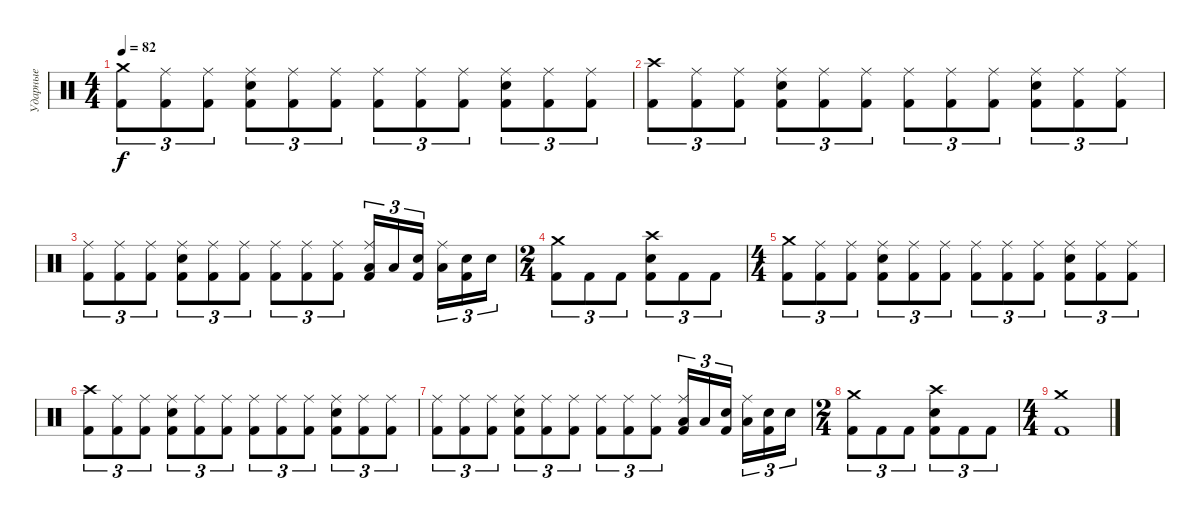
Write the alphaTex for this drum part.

\track ("Ударные" "Ударные") {instrument percussion}
\staff {score}
\articulation defaults
\ts (4 4)
\tempo 82
\clef neutral
\ks c
("Crash medium (hit)" "Kick (hit) 2").8{tu (3 2) dy f} ("Ride (middle)" "Kick (hit) 2").8{tu (3 2)} ("Ride (middle)" "Kick (hit) 2").8{tu (3 2)} ("Ride (middle)" "Electric Snare (hit)" "Kick (hit) 2").8{tu (3 2)} ("Ride (middle)" "Kick (hit) 2").8{tu (3 2)} ("Ride (middle)" "Kick (hit) 2").8{tu (3 2)} ("Ride (middle)" "Kick (hit) 2").8{tu (3 2)} ("Ride (middle)" "Kick (hit) 2").8{tu (3 2)} ("Ride (middle)" "Kick (hit) 2").8{tu (3 2)} ("Ride (middle)" "Electric Snare (hit)" "Kick (hit) 2").8{tu (3 2)} ("Ride (middle)" "Kick (hit) 2").8{tu (3 2)} ("Ride (middle)" "Kick (hit) 2").8{tu (3 2)} |
("Crash high (hit)" "Kick (hit) 2").8{tu (3 2)} ("Ride (middle)" "Kick (hit) 2").8{tu (3 2)} ("Ride (middle)" "Kick (hit) 2").8{tu (3 2)} ("Ride (middle)" "Electric Snare (hit)" "Kick (hit) 2").8{tu (3 2)} ("Ride (middle)" "Kick (hit) 2").8{tu (3 2)} ("Ride (middle)" "Kick (hit) 2").8{tu (3 2)} ("Ride (middle)" "Kick (hit) 2").8{tu (3 2)} ("Ride (middle)" "Kick (hit) 2").8{tu (3 2)} ("Ride (middle)" "Kick (hit) 2").8{tu (3 2)} ("Ride (middle)" "Electric Snare (hit)" "Kick (hit) 2").8{tu (3 2)} ("Ride (middle)" "Kick (hit) 2").8{tu (3 2)} ("Ride (middle)" "Kick (hit) 2").8{tu (3 2)} |
("Ride (middle)" "Kick (hit) 2").8{tu (3 2)} ("Ride (middle)" "Kick (hit) 2").8{tu (3 2)} ("Ride (middle)" "Kick (hit) 2").8{tu (3 2)} ("Ride (middle)" "Electric Snare (hit)" "Kick (hit) 2").8{tu (3 2)} ("Ride (middle)" "Kick (hit) 2").8{tu (3 2)} ("Ride (middle)" "Kick (hit) 2").8{tu (3 2)} ("Ride (middle)" "Kick (hit) 2").8{tu (3 2)} ("Ride (middle)" "Kick (hit) 2").8{tu (3 2)} ("Ride (middle)" "Kick (hit) 2").8{tu (3 2)} ("Ride (middle)" "Low Tom (hit)" "Kick (hit) 2").16{tu (3 2)} "Low Tom (hit)".16{tu (3 2)} ("Electric Snare (hit)" "Kick (hit) 2").16{tu (3 2)} ("Ride (middle)" "Low Tom (hit)").16{tu (3 2)} ("Electric Snare (hit)" "Kick (hit) 2").16{tu (3 2)} "Electric Snare (hit)".16{tu (3 2)} |
\ts (2 4)
("Crash medium (hit)" "Kick (hit) 2").8{tu (3 2)} "Kick (hit) 2".8{tu (3 2)} "Kick (hit) 2".8{tu (3 2)} ("Crash high (hit)" "Electric Snare (hit)" "Kick (hit) 2").8{tu (3 2)} "Kick (hit) 2".8{tu (3 2)} "Kick (hit) 2".8{tu (3 2)} |
\ts (4 4)
("Crash medium (hit)" "Kick (hit) 2").8{tu (3 2)} ("Ride (middle)" "Kick (hit) 2").8{tu (3 2)} ("Ride (middle)" "Kick (hit) 2").8{tu (3 2)} ("Ride (middle)" "Electric Snare (hit)" "Kick (hit) 2").8{tu (3 2)} ("Ride (middle)" "Kick (hit) 2").8{tu (3 2)} ("Ride (middle)" "Kick (hit) 2").8{tu (3 2)} ("Ride (middle)" "Kick (hit) 2").8{tu (3 2)} ("Ride (middle)" "Kick (hit) 2").8{tu (3 2)} ("Ride (middle)" "Kick (hit) 2").8{tu (3 2)} ("Ride (middle)" "Electric Snare (hit)" "Kick (hit) 2").8{tu (3 2)} ("Ride (middle)" "Kick (hit) 2").8{tu (3 2)} ("Ride (middle)" "Kick (hit) 2").8{tu (3 2)} |
("Crash high (hit)" "Kick (hit) 2").8{tu (3 2)} ("Ride (middle)" "Kick (hit) 2").8{tu (3 2)} ("Ride (middle)" "Kick (hit) 2").8{tu (3 2)} ("Ride (middle)" "Electric Snare (hit)" "Kick (hit) 2").8{tu (3 2)} ("Ride (middle)" "Kick (hit) 2").8{tu (3 2)} ("Ride (middle)" "Kick (hit) 2").8{tu (3 2)} ("Ride (middle)" "Kick (hit) 2").8{tu (3 2)} ("Ride (middle)" "Kick (hit) 2").8{tu (3 2)} ("Ride (middle)" "Kick (hit) 2").8{tu (3 2)} ("Ride (middle)" "Electric Snare (hit)" "Kick (hit) 2").8{tu (3 2)} ("Ride (middle)" "Kick (hit) 2").8{tu (3 2)} ("Ride (middle)" "Kick (hit) 2").8{tu (3 2)} |
("Ride (middle)" "Kick (hit) 2").8{tu (3 2)} ("Ride (middle)" "Kick (hit) 2").8{tu (3 2)} ("Ride (middle)" "Kick (hit) 2").8{tu (3 2)} ("Ride (middle)" "Electric Snare (hit)" "Kick (hit) 2").8{tu (3 2)} ("Ride (middle)" "Kick (hit) 2").8{tu (3 2)} ("Ride (middle)" "Kick (hit) 2").8{tu (3 2)} ("Ride (middle)" "Kick (hit) 2").8{tu (3 2)} ("Ride (middle)" "Kick (hit) 2").8{tu (3 2)} ("Ride (middle)" "Kick (hit) 2").8{tu (3 2)} ("Ride (middle)" "Low Tom (hit)" "Kick (hit) 2").16{tu (3 2)} "Low Tom (hit)".16{tu (3 2)} ("Electric Snare (hit)" "Kick (hit) 2").16{tu (3 2)} ("Ride (middle)" "Low Tom (hit)").16{tu (3 2)} ("Electric Snare (hit)" "Kick (hit) 2").16{tu (3 2)} "Electric Snare (hit)".16{tu (3 2)} |
\ts (2 4)
("Crash medium (hit)" "Kick (hit) 2").8{tu (3 2)} "Kick (hit) 2".8{tu (3 2)} "Kick (hit) 2".8{tu (3 2)} ("Crash high (hit)" "Electric Snare (hit)" "Kick (hit) 2").8{tu (3 2)} "Kick (hit) 2".8{tu (3 2)} "Kick (hit) 2".8{tu (3 2)} |
\ts (4 4)
("Crash medium (hit)" "Kick (hit) 2").1
